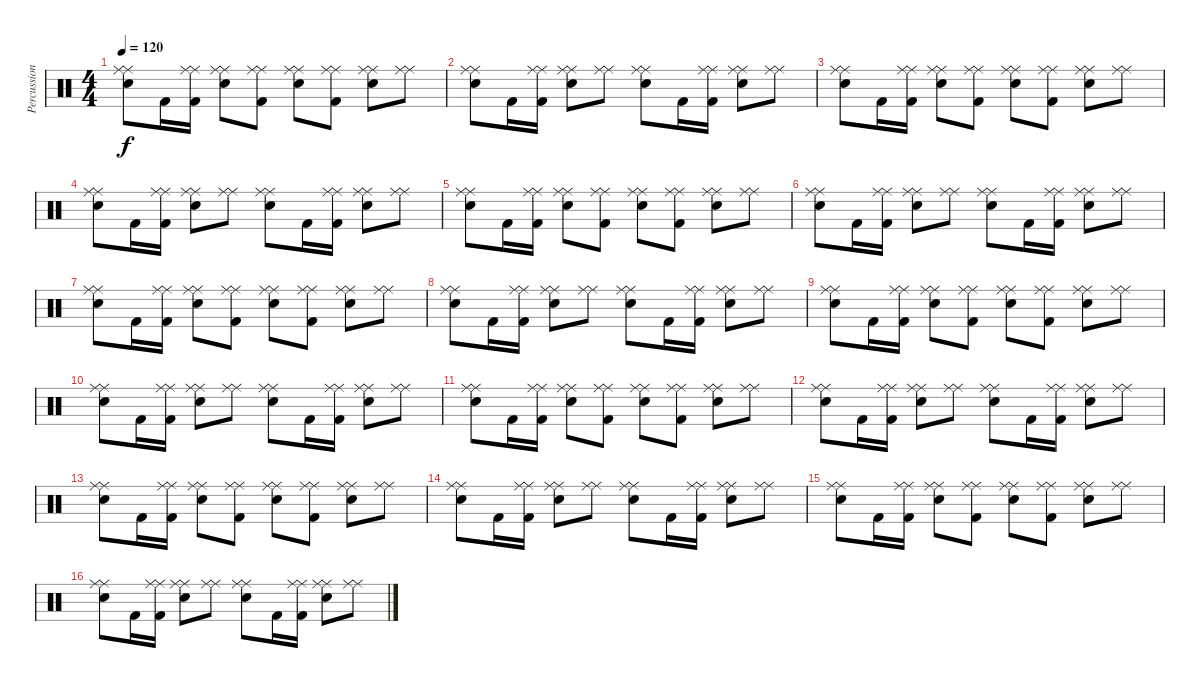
\track ("Percussions" "Percussion") {instrument percussion}
\staff {score}
\articulation defaults
\ts (4 4)
\tempo 120
\clef neutral
\ks c
("Ride (middle)" "Ride (middle)" "Electric Snare (hit)").8{dy f} "Kick (hit) 2".16 ("Ride (middle)" "Ride (middle)" "Kick (hit) 2").16 ("Ride (middle)" "Ride (middle)" "Electric Snare (hit)").8 ("Ride (middle)" "Ride (middle)" "Kick (hit) 2").8 ("Ride (middle)" "Ride (middle)" "Electric Snare (hit)").8 ("Ride (middle)" "Ride (middle)" "Kick (hit) 2").8 ("Ride (middle)" "Ride (middle)" "Electric Snare (hit)").8 ("Ride (middle)" "Ride (middle)").8 |
("Ride (middle)" "Ride (middle)" "Electric Snare (hit)").8 "Kick (hit) 2".16 ("Ride (middle)" "Ride (middle)" "Kick (hit) 2").16 ("Ride (middle)" "Ride (middle)" "Electric Snare (hit)").8 ("Ride (middle)" "Ride (middle)").8 ("Ride (middle)" "Ride (middle)" "Electric Snare (hit)").8 "Kick (hit) 2".16 ("Ride (middle)" "Ride (middle)" "Kick (hit) 2").16 ("Ride (middle)" "Ride (middle)" "Electric Snare (hit)").8 ("Ride (middle)" "Ride (middle)").8 |
("Ride (middle)" "Ride (middle)" "Electric Snare (hit)").8 "Kick (hit) 2".16 ("Ride (middle)" "Ride (middle)" "Kick (hit) 2").16 ("Ride (middle)" "Ride (middle)" "Electric Snare (hit)").8 ("Ride (middle)" "Ride (middle)" "Kick (hit) 2").8 ("Ride (middle)" "Ride (middle)" "Electric Snare (hit)").8 ("Ride (middle)" "Ride (middle)" "Kick (hit) 2").8 ("Ride (middle)" "Ride (middle)" "Electric Snare (hit)").8 ("Ride (middle)" "Ride (middle)").8 |
("Ride (middle)" "Ride (middle)" "Electric Snare (hit)").8 "Kick (hit) 2".16 ("Ride (middle)" "Ride (middle)" "Kick (hit) 2").16 ("Ride (middle)" "Ride (middle)" "Electric Snare (hit)").8 ("Ride (middle)" "Ride (middle)").8 ("Ride (middle)" "Ride (middle)" "Electric Snare (hit)").8 "Kick (hit) 2".16 ("Ride (middle)" "Ride (middle)" "Kick (hit) 2").16 ("Ride (middle)" "Ride (middle)" "Electric Snare (hit)").8 ("Ride (middle)" "Ride (middle)").8 |
("Ride (middle)" "Ride (middle)" "Electric Snare (hit)").8 "Kick (hit) 2".16 ("Ride (middle)" "Ride (middle)" "Kick (hit) 2").16 ("Ride (middle)" "Ride (middle)" "Electric Snare (hit)").8 ("Ride (middle)" "Ride (middle)" "Kick (hit) 2").8 ("Ride (middle)" "Ride (middle)" "Electric Snare (hit)").8 ("Ride (middle)" "Ride (middle)" "Kick (hit) 2").8 ("Ride (middle)" "Ride (middle)" "Electric Snare (hit)").8 ("Ride (middle)" "Ride (middle)").8 |
("Ride (middle)" "Ride (middle)" "Electric Snare (hit)").8 "Kick (hit) 2".16 ("Ride (middle)" "Ride (middle)" "Kick (hit) 2").16 ("Ride (middle)" "Ride (middle)" "Electric Snare (hit)").8 ("Ride (middle)" "Ride (middle)").8 ("Ride (middle)" "Ride (middle)" "Electric Snare (hit)").8 "Kick (hit) 2".16 ("Ride (middle)" "Ride (middle)" "Kick (hit) 2").16 ("Ride (middle)" "Ride (middle)" "Electric Snare (hit)").8 ("Ride (middle)" "Ride (middle)").8 |
("Ride (middle)" "Ride (middle)" "Electric Snare (hit)").8 "Kick (hit) 2".16 ("Ride (middle)" "Ride (middle)" "Kick (hit) 2").16 ("Ride (middle)" "Ride (middle)" "Electric Snare (hit)").8 ("Ride (middle)" "Ride (middle)" "Kick (hit) 2").8 ("Ride (middle)" "Ride (middle)" "Electric Snare (hit)").8 ("Ride (middle)" "Ride (middle)" "Kick (hit) 2").8 ("Ride (middle)" "Ride (middle)" "Electric Snare (hit)").8 ("Ride (middle)" "Ride (middle)").8 |
("Ride (middle)" "Ride (middle)" "Electric Snare (hit)").8 "Kick (hit) 2".16 ("Ride (middle)" "Ride (middle)" "Kick (hit) 2").16 ("Ride (middle)" "Ride (middle)" "Electric Snare (hit)").8 ("Ride (middle)" "Ride (middle)").8 ("Ride (middle)" "Ride (middle)" "Electric Snare (hit)").8 "Kick (hit) 2".16 ("Ride (middle)" "Ride (middle)" "Kick (hit) 2").16 ("Ride (middle)" "Ride (middle)" "Electric Snare (hit)").8 ("Ride (middle)" "Ride (middle)").8 |
("Ride (middle)" "Ride (middle)" "Electric Snare (hit)").8 "Kick (hit) 2".16 ("Ride (middle)" "Ride (middle)" "Kick (hit) 2").16 ("Ride (middle)" "Ride (middle)" "Electric Snare (hit)").8 ("Ride (middle)" "Ride (middle)" "Kick (hit) 2").8 ("Ride (middle)" "Ride (middle)" "Electric Snare (hit)").8 ("Ride (middle)" "Ride (middle)" "Kick (hit) 2").8 ("Ride (middle)" "Ride (middle)" "Electric Snare (hit)").8 ("Ride (middle)" "Ride (middle)").8 |
("Ride (middle)" "Ride (middle)" "Electric Snare (hit)").8 "Kick (hit) 2".16 ("Ride (middle)" "Ride (middle)" "Kick (hit) 2").16 ("Ride (middle)" "Ride (middle)" "Electric Snare (hit)").8 ("Ride (middle)" "Ride (middle)").8 ("Ride (middle)" "Ride (middle)" "Electric Snare (hit)").8 "Kick (hit) 2".16 ("Ride (middle)" "Ride (middle)" "Kick (hit) 2").16 ("Ride (middle)" "Ride (middle)" "Electric Snare (hit)").8 ("Ride (middle)" "Ride (middle)").8 |
("Ride (middle)" "Ride (middle)" "Electric Snare (hit)").8 "Kick (hit) 2".16 ("Ride (middle)" "Ride (middle)" "Kick (hit) 2").16 ("Ride (middle)" "Ride (middle)" "Electric Snare (hit)").8 ("Ride (middle)" "Ride (middle)" "Kick (hit) 2").8 ("Ride (middle)" "Ride (middle)" "Electric Snare (hit)").8 ("Ride (middle)" "Ride (middle)" "Kick (hit) 2").8 ("Ride (middle)" "Ride (middle)" "Electric Snare (hit)").8 ("Ride (middle)" "Ride (middle)").8 |
("Ride (middle)" "Ride (middle)" "Electric Snare (hit)").8 "Kick (hit) 2".16 ("Ride (middle)" "Ride (middle)" "Kick (hit) 2").16 ("Ride (middle)" "Ride (middle)" "Electric Snare (hit)").8 ("Ride (middle)" "Ride (middle)").8 ("Ride (middle)" "Ride (middle)" "Electric Snare (hit)").8 "Kick (hit) 2".16 ("Ride (middle)" "Ride (middle)" "Kick (hit) 2").16 ("Ride (middle)" "Ride (middle)" "Electric Snare (hit)").8 ("Ride (middle)" "Ride (middle)").8 |
("Ride (middle)" "Ride (middle)" "Electric Snare (hit)").8 "Kick (hit) 2".16 ("Ride (middle)" "Ride (middle)" "Kick (hit) 2").16 ("Ride (middle)" "Ride (middle)" "Electric Snare (hit)").8 ("Ride (middle)" "Ride (middle)" "Kick (hit) 2").8 ("Ride (middle)" "Ride (middle)" "Electric Snare (hit)").8 ("Ride (middle)" "Ride (middle)" "Kick (hit) 2").8 ("Ride (middle)" "Ride (middle)" "Electric Snare (hit)").8 ("Ride (middle)" "Ride (middle)").8 |
("Ride (middle)" "Ride (middle)" "Electric Snare (hit)").8 "Kick (hit) 2".16 ("Ride (middle)" "Ride (middle)" "Kick (hit) 2").16 ("Ride (middle)" "Ride (middle)" "Electric Snare (hit)").8 ("Ride (middle)" "Ride (middle)").8 ("Ride (middle)" "Ride (middle)" "Electric Snare (hit)").8 "Kick (hit) 2".16 ("Ride (middle)" "Ride (middle)" "Kick (hit) 2").16 ("Ride (middle)" "Ride (middle)" "Electric Snare (hit)").8 ("Ride (middle)" "Ride (middle)").8 |
("Ride (middle)" "Ride (middle)" "Electric Snare (hit)").8 "Kick (hit) 2".16 ("Ride (middle)" "Ride (middle)" "Kick (hit) 2").16 ("Ride (middle)" "Ride (middle)" "Electric Snare (hit)").8 ("Ride (middle)" "Ride (middle)" "Kick (hit) 2").8 ("Ride (middle)" "Ride (middle)" "Electric Snare (hit)").8 ("Ride (middle)" "Ride (middle)" "Kick (hit) 2").8 ("Ride (middle)" "Ride (middle)" "Electric Snare (hit)").8 ("Ride (middle)" "Ride (middle)").8 |
("Ride (middle)" "Ride (middle)" "Electric Snare (hit)").8 "Kick (hit) 2".16 ("Ride (middle)" "Ride (middle)" "Kick (hit) 2").16 ("Ride (middle)" "Ride (middle)" "Electric Snare (hit)").8 ("Ride (middle)" "Ride (middle)").8 ("Ride (middle)" "Ride (middle)" "Electric Snare (hit)").8 "Kick (hit) 2".16 ("Ride (middle)" "Ride (middle)" "Kick (hit) 2").16 ("Ride (middle)" "Ride (middle)" "Electric Snare (hit)").8 ("Ride (middle)" "Ride (middle)").8
